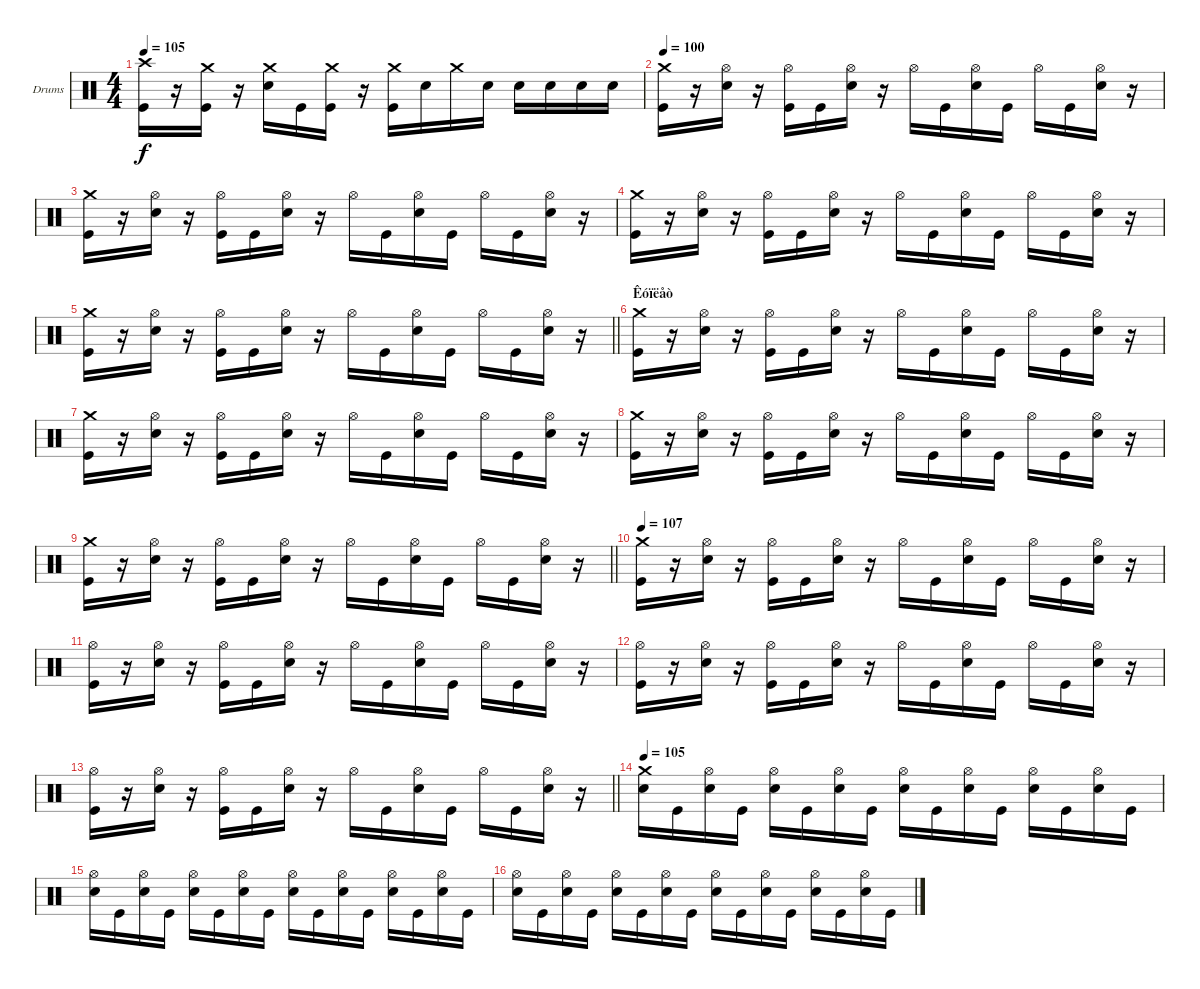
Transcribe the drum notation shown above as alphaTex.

\bracketExtendMode groupsimilarinstruments
\firstSystemTrackNameOrientation horizontal
\otherSystemsTrackNameOrientation horizontal
\track ("Drumkit" "Drums") {instrument percussion}
\staff {score}
\articulation defaults
\ts (4 4)
\tempo 105
\clef neutral
\ks c
("Crash high (hit)" "Kick (hit)").16{dy f} r.16 ("Crash medium (hit)" "Kick (hit)").16 r.16 ("Crash medium (hit)" "Snare (hit) 2").16 "Kick (hit)".16 ("Crash medium (hit)" "Kick (hit)").16 r.16 ("Crash medium (hit)" "Kick (hit)").16 "Snare (hit) 2".16 "Crash medium (hit)".16 "Snare (hit) 2".16 "Snare (hit) 2".16 "Snare (hit) 2".16 "Snare (hit) 2".16 "Snare (hit) 2".16 |
\tempo 100
("Crash medium (hit)" "Kick (hit)").16 r.16 ("Hi-Hat (open)" "Snare (hit) 2").16 r.16 ("Hi-Hat (open)" "Kick (hit)").16 "Kick (hit)".16 ("Hi-Hat (open)" "Snare (hit) 2").16 r.16 "Hi-Hat (open)".16 "Kick (hit)".16 ("Hi-Hat (open)" "Snare (hit) 2").16 "Kick (hit)".16 "Hi-Hat (open)".16 "Kick (hit)".16 ("Hi-Hat (open)" "Snare (hit) 2").16 r.16 |
("Crash medium (hit)" "Kick (hit)").16 r.16 ("Hi-Hat (open)" "Snare (hit) 2").16 r.16 ("Hi-Hat (open)" "Kick (hit)").16 "Kick (hit)".16 ("Hi-Hat (open)" "Snare (hit) 2").16 r.16 "Hi-Hat (open)".16 "Kick (hit)".16 ("Hi-Hat (open)" "Snare (hit) 2").16 "Kick (hit)".16 "Hi-Hat (open)".16 "Kick (hit)".16 ("Hi-Hat (open)" "Snare (hit) 2").16 r.16 |
("Crash medium (hit)" "Kick (hit)").16 r.16 ("Hi-Hat (open)" "Snare (hit) 2").16 r.16 ("Hi-Hat (open)" "Kick (hit)").16 "Kick (hit)".16 ("Hi-Hat (open)" "Snare (hit) 2").16 r.16 "Hi-Hat (open)".16 "Kick (hit)".16 ("Hi-Hat (open)" "Snare (hit) 2").16 "Kick (hit)".16 "Hi-Hat (open)".16 "Kick (hit)".16 ("Hi-Hat (open)" "Snare (hit) 2").16 r.16 |
\barLineRight lightlight
("Crash medium (hit)" "Kick (hit)").16 r.16 ("Hi-Hat (open)" "Snare (hit) 2").16 r.16 ("Hi-Hat (open)" "Kick (hit)").16 "Kick (hit)".16 ("Hi-Hat (open)" "Snare (hit) 2").16 r.16 "Hi-Hat (open)".16 "Kick (hit)".16 ("Hi-Hat (open)" "Snare (hit) 2").16 "Kick (hit)".16 "Hi-Hat (open)".16 "Kick (hit)".16 ("Hi-Hat (open)" "Snare (hit) 2").16 r.16 |
\section ("" "Êóïëåò")
("Crash medium (hit)" "Kick (hit)").16 r.16 ("Hi-Hat (open)" "Snare (hit) 2").16 r.16 ("Hi-Hat (open)" "Kick (hit)").16 "Kick (hit)".16 ("Hi-Hat (open)" "Snare (hit) 2").16 r.16 "Hi-Hat (open)".16 "Kick (hit)".16 ("Hi-Hat (open)" "Snare (hit) 2").16 "Kick (hit)".16 "Hi-Hat (open)".16 "Kick (hit)".16 ("Hi-Hat (open)" "Snare (hit) 2").16 r.16 |
("Crash medium (hit)" "Kick (hit)").16 r.16 ("Hi-Hat (open)" "Snare (hit) 2").16 r.16 ("Hi-Hat (open)" "Kick (hit)").16 "Kick (hit)".16 ("Hi-Hat (open)" "Snare (hit) 2").16 r.16 "Hi-Hat (open)".16 "Kick (hit)".16 ("Hi-Hat (open)" "Snare (hit) 2").16 "Kick (hit)".16 "Hi-Hat (open)".16 "Kick (hit)".16 ("Hi-Hat (open)" "Snare (hit) 2").16 r.16 |
("Crash medium (hit)" "Kick (hit)").16 r.16 ("Hi-Hat (open)" "Snare (hit) 2").16 r.16 ("Hi-Hat (open)" "Kick (hit)").16 "Kick (hit)".16 ("Hi-Hat (open)" "Snare (hit) 2").16 r.16 "Hi-Hat (open)".16 "Kick (hit)".16 ("Hi-Hat (open)" "Snare (hit) 2").16 "Kick (hit)".16 "Hi-Hat (open)".16 "Kick (hit)".16 ("Hi-Hat (open)" "Snare (hit) 2").16 r.16 |
\barLineRight lightlight
("Crash medium (hit)" "Kick (hit)").16 r.16 ("Hi-Hat (open)" "Snare (hit) 2").16 r.16 ("Hi-Hat (open)" "Kick (hit)").16 "Kick (hit)".16 ("Hi-Hat (open)" "Snare (hit) 2").16 r.16 "Hi-Hat (open)".16 "Kick (hit)".16 ("Hi-Hat (open)" "Snare (hit) 2").16 "Kick (hit)".16 "Hi-Hat (open)".16 "Kick (hit)".16 ("Hi-Hat (open)" "Snare (hit) 2").16 r.16 |
\tempo 107
("Crash medium (hit)" "Kick (hit)").16 r.16 ("Hi-Hat (open)" "Snare (hit) 2").16 r.16 ("Hi-Hat (open)" "Kick (hit)").16 "Kick (hit)".16 ("Hi-Hat (open)" "Snare (hit) 2").16 r.16 "Hi-Hat (open)".16 "Kick (hit)".16 ("Hi-Hat (open)" "Snare (hit) 2").16 "Kick (hit)".16 "Hi-Hat (open)".16 "Kick (hit)".16 ("Hi-Hat (open)" "Snare (hit) 2").16 r.16 |
("Hi-Hat (open)" "Kick (hit)").16 r.16 ("Hi-Hat (open)" "Snare (hit) 2").16 r.16 ("Hi-Hat (open)" "Kick (hit)").16 "Kick (hit)".16 ("Hi-Hat (open)" "Snare (hit) 2").16 r.16 "Hi-Hat (open)".16 "Kick (hit)".16 ("Hi-Hat (open)" "Snare (hit) 2").16 "Kick (hit)".16 "Hi-Hat (open)".16 "Kick (hit)".16 ("Hi-Hat (open)" "Snare (hit) 2").16 r.16 |
("Hi-Hat (open)" "Kick (hit)").16 r.16 ("Hi-Hat (open)" "Snare (hit) 2").16 r.16 ("Hi-Hat (open)" "Kick (hit)").16 "Kick (hit)".16 ("Hi-Hat (open)" "Snare (hit) 2").16 r.16 "Hi-Hat (open)".16 "Kick (hit)".16 ("Hi-Hat (open)" "Snare (hit) 2").16 "Kick (hit)".16 "Hi-Hat (open)".16 "Kick (hit)".16 ("Hi-Hat (open)" "Snare (hit) 2").16 r.16 |
\barLineRight lightlight
("Hi-Hat (open)" "Kick (hit)").16 r.16 ("Hi-Hat (open)" "Snare (hit) 2").16 r.16 ("Hi-Hat (open)" "Kick (hit)").16 "Kick (hit)".16 ("Hi-Hat (open)" "Snare (hit) 2").16 r.16 "Hi-Hat (open)".16 "Kick (hit)".16 ("Hi-Hat (open)" "Snare (hit) 2").16 "Kick (hit)".16 "Hi-Hat (open)".16 "Kick (hit)".16 ("Hi-Hat (open)" "Snare (hit) 2").16 r.16 |
\tempo 105
("Crash medium (hit)" "Snare (hit) 2").16 "Kick (hit)".16 ("Hi-Hat (open)" "Snare (hit) 2").16 "Kick (hit)".16 ("Hi-Hat (open)" "Snare (hit) 2").16 "Kick (hit)".16 ("Hi-Hat (open)" "Snare (hit) 2").16 "Kick (hit)".16 ("Hi-Hat (open)" "Snare (hit) 2").16 "Kick (hit)".16 ("Hi-Hat (open)" "Snare (hit) 2").16 "Kick (hit)".16 ("Hi-Hat (open)" "Snare (hit) 2").16 "Kick (hit)".16 ("Hi-Hat (open)" "Snare (hit) 2").16 "Kick (hit)".16 |
("Hi-Hat (open)" "Snare (hit) 2").16 "Kick (hit)".16 ("Hi-Hat (open)" "Snare (hit) 2").16 "Kick (hit)".16 ("Hi-Hat (open)" "Snare (hit) 2").16 "Kick (hit)".16 ("Hi-Hat (open)" "Snare (hit) 2").16 "Kick (hit)".16 ("Hi-Hat (open)" "Snare (hit) 2").16 "Kick (hit)".16 ("Hi-Hat (open)" "Snare (hit) 2").16 "Kick (hit)".16 ("Hi-Hat (open)" "Snare (hit) 2").16 "Kick (hit)".16 ("Hi-Hat (open)" "Snare (hit) 2").16 "Kick (hit)".16 |
("Hi-Hat (open)" "Snare (hit) 2").16 "Kick (hit)".16 ("Hi-Hat (open)" "Snare (hit) 2").16 "Kick (hit)".16 ("Hi-Hat (open)" "Snare (hit) 2").16 "Kick (hit)".16 ("Hi-Hat (open)" "Snare (hit) 2").16 "Kick (hit)".16 ("Hi-Hat (open)" "Snare (hit) 2").16 "Kick (hit)".16 ("Hi-Hat (open)" "Snare (hit) 2").16 "Kick (hit)".16 ("Hi-Hat (open)" "Snare (hit) 2").16 "Kick (hit)".16 ("Hi-Hat (open)" "Snare (hit) 2").16 "Kick (hit)".16
